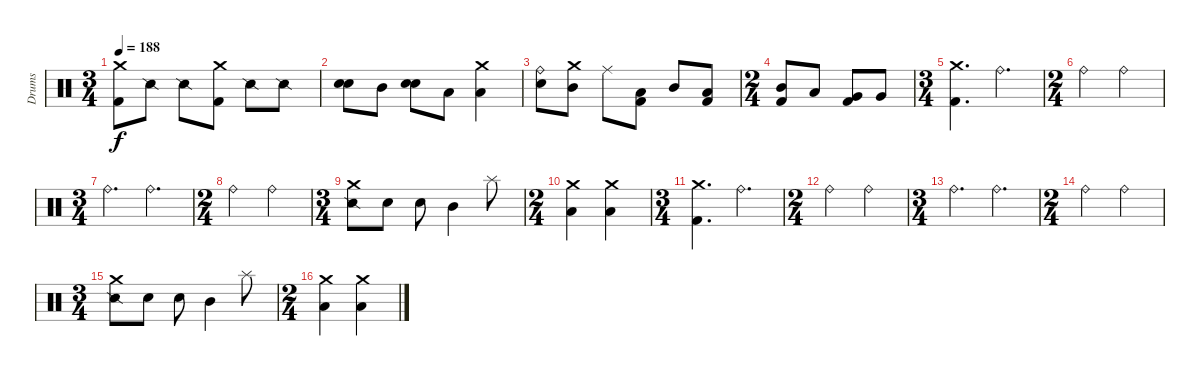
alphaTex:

\track ("Drums" "Drums") {instrument percussion}
\staff {score}
\articulation defaults
\ts (3 4)
\tempo 188
\clef neutral
\ks c
("Crash medium (hit)" "Kick (hit) 2").8{dy f} "Snare (side stick) 2".8 "Snare (side stick) 2".8 ("Crash medium (hit)" "Kick (hit) 2").8 "Snare (side stick) 2".8 "Snare (side stick) 2".8 |
("Electric Snare (hit)" "Electric Snare (hit)").8 "Mid Tom (hit)".8 ("Electric Snare (hit)" "Electric Snare (hit)").8 "Low Tom (hit)".8 ("Crash medium (hit)" "Low Floor Tom (hit)").4 |
("Electric Snare (hit)" "Ride (bell)").8 ("Crash medium (hit)" "Mid Tom (hit)").8 "Ride (middle)".8 ("Low Tom (hit)" "Kick (hit) 2").8 "Mid Tom (hit)".8 ("Low Tom (hit)" "Kick (hit) 2").8 |
\ts (2 4)
("Mid Tom (hit)" "Kick (hit) 2").8 "Low Tom (hit)".8 ("Very Low Tom (hit)" "Kick (hit) 2").8 "Very Low Tom (hit)".8 |
\ts (3 4)
("Crash medium (hit)" "Kick (hit) 2").4{d} "Ride (bell)".4{d} |
\ts (2 4)
"Ride (bell)".4 "Ride (bell)".4 |
\ts (3 4)
"Ride (bell)".4{d} "Ride (bell)".4{d} |
\ts (2 4)
"Ride (bell)".4 "Ride (bell)".4 |
\ts (3 4)
("Snare (side stick) 2" "Crash medium (hit)").8 "Electric Snare (hit)".8 "Snare (hit) 2".8 "Mid Tom (hit)".4 "Splash (hit)".8 |
\ts (2 4)
("Crash medium (hit)" "Low Tom (hit)").4 ("Crash medium (hit)" "Low Tom (hit)").4 |
\ts (3 4)
("Crash medium (hit)" "Kick (hit) 2").4{d} "Ride (bell)".4{d} |
\ts (2 4)
"Ride (bell)".4 "Ride (bell)".4 |
\ts (3 4)
"Ride (bell)".4{d} "Ride (bell)".4{d} |
\ts (2 4)
"Ride (bell)".4 "Ride (bell)".4 |
\ts (3 4)
("Snare (side stick) 2" "Crash medium (hit)").8 "Electric Snare (hit)".8 "Snare (hit) 2".8 "Mid Tom (hit)".4 "Splash (hit)".8 |
\ts (2 4)
("Crash medium (hit)" "Low Tom (hit)").4 ("Crash medium (hit)" "Low Tom (hit)").4
